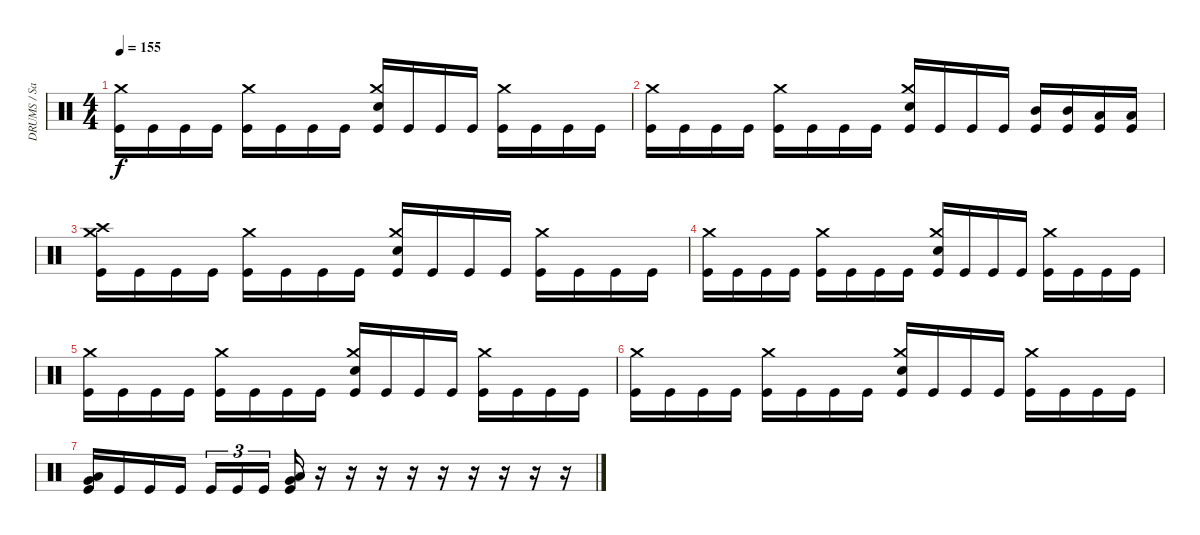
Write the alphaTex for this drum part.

\track ("DRUMS / Sasha" "DRUMS / Sa") {instrument percussion}
\staff {score}
\articulation defaults
\ts (4 4)
\tempo 155
\clef neutral
\ks c
("Kick (hit)" "Crash medium (hit)").16{dy f} "Kick (hit)".16 "Kick (hit)".16 "Kick (hit)".16 ("Kick (hit)" "Crash medium (hit)").16 "Kick (hit)".16 "Kick (hit)".16 "Kick (hit)".16 ("Kick (hit)" "Crash medium (hit)" "Snare (hit) 2").16 "Kick (hit)".16 "Kick (hit)".16 "Kick (hit)".16 ("Kick (hit)" "Crash medium (hit)").16 "Kick (hit)".16 "Kick (hit)".16 "Kick (hit)".16 |
("Kick (hit)" "Crash medium (hit)").16 "Kick (hit)".16 "Kick (hit)".16 "Kick (hit)".16 ("Kick (hit)" "Crash medium (hit)").16 "Kick (hit)".16 "Kick (hit)".16 "Kick (hit)".16 ("Kick (hit)" "Crash medium (hit)" "Snare (hit) 2").16 "Kick (hit)".16 "Kick (hit)".16 "Kick (hit)".16 ("Kick (hit)" "Mid Tom (hit)").16 ("Kick (hit)" "Mid Tom (hit)").16 ("Kick (hit)" "Low Tom (hit)").16 ("Kick (hit)" "Low Tom (hit)").16 |
("Kick (hit)" "Crash medium (hit)" "Crash high (hit)").16 "Kick (hit)".16 "Kick (hit)".16 "Kick (hit)".16 ("Kick (hit)" "Crash medium (hit)").16 "Kick (hit)".16 "Kick (hit)".16 "Kick (hit)".16 ("Kick (hit)" "Crash medium (hit)" "Snare (hit) 2").16 "Kick (hit)".16 "Kick (hit)".16 "Kick (hit)".16 ("Kick (hit)" "Crash medium (hit)").16 "Kick (hit)".16 "Kick (hit)".16 "Kick (hit)".16 |
("Kick (hit)" "Crash medium (hit)").16 "Kick (hit)".16 "Kick (hit)".16 "Kick (hit)".16 ("Kick (hit)" "Crash medium (hit)").16 "Kick (hit)".16 "Kick (hit)".16 "Kick (hit)".16 ("Kick (hit)" "Crash medium (hit)" "Snare (hit) 2").16 "Kick (hit)".16 "Kick (hit)".16 "Kick (hit)".16 ("Kick (hit)" "Crash medium (hit)").16 "Kick (hit)".16 "Kick (hit)".16 "Kick (hit)".16 |
("Kick (hit)" "Crash medium (hit)").16 "Kick (hit)".16 "Kick (hit)".16 "Kick (hit)".16 ("Kick (hit)" "Crash medium (hit)").16 "Kick (hit)".16 "Kick (hit)".16 "Kick (hit)".16 ("Kick (hit)" "Crash medium (hit)" "Snare (hit) 2").16 "Kick (hit)".16 "Kick (hit)".16 "Kick (hit)".16 ("Kick (hit)" "Crash medium (hit)").16 "Kick (hit)".16 "Kick (hit)".16 "Kick (hit)".16 |
("Kick (hit)" "Crash medium (hit)").16 "Kick (hit)".16 "Kick (hit)".16 "Kick (hit)".16 ("Kick (hit)" "Crash medium (hit)").16 "Kick (hit)".16 "Kick (hit)".16 "Kick (hit)".16 ("Kick (hit)" "Crash medium (hit)" "Snare (hit) 2").16 "Kick (hit)".16 "Kick (hit)".16 "Kick (hit)".16 ("Kick (hit)" "Crash medium (hit)").16 "Kick (hit)".16 "Kick (hit)".16 "Kick (hit)".16 |
("Kick (hit)" "Very Low Tom (hit)" "Low Tom (hit)").16 "Kick (hit)".16 "Kick (hit)".16 "Kick (hit)".16 "Kick (hit)".16{tu (3 2)} "Kick (hit)".16{tu (3 2)} "Kick (hit)".16{tu (3 2) beam splitsecondary} ("Kick (hit)" "Very Low Tom (hit)" "Low Tom (hit)").16 r.16 r.16 r.16 r.16 r.16 r.16 r.16 r.16 r.16
